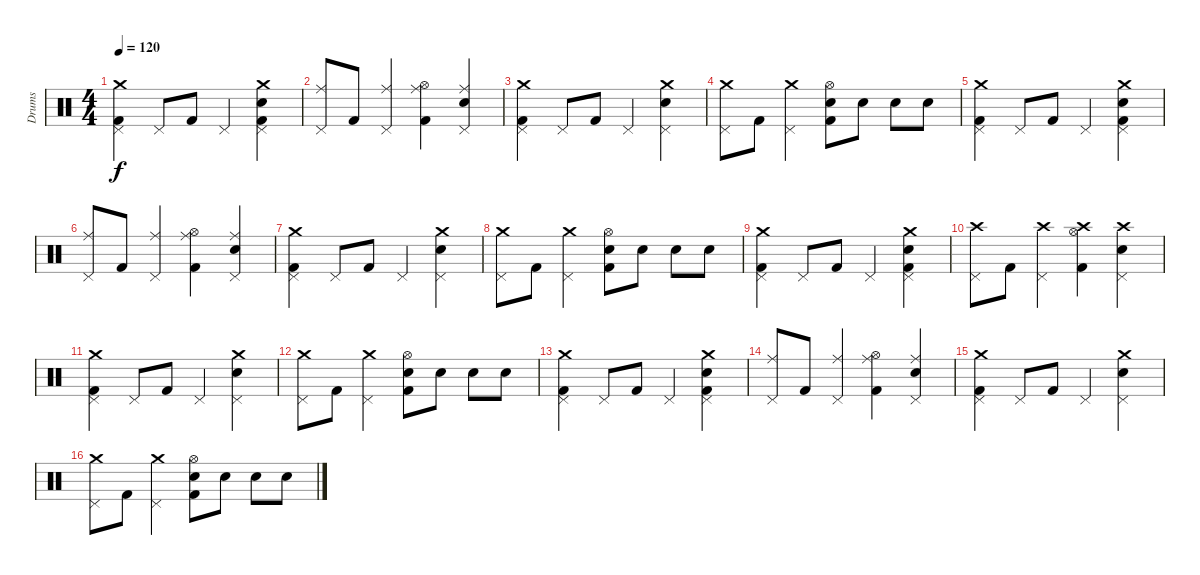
\track ("Drums" "Drums") {instrument percussion}
\staff {score}
\articulation defaults
\ts (4 4)
\tempo 120
\clef neutral
\ks c
("Crash medium (hit)" "Pedal Hi-Hat (hit)" "Kick (hit) 2").4{dy f} "Pedal Hi-Hat (hit)".8 "Kick (hit) 2".8 "Pedal Hi-Hat (hit)".4 ("Crash medium (hit)" "Pedal Hi-Hat (hit)" "Snare (hit) 2" "Kick (hit) 2").4 |
("Ride (middle)" "Pedal Hi-Hat (hit)").8 "Kick (hit) 2".8 ("Ride (middle)" "Pedal Hi-Hat (hit)").4 ("Ride (middle)" "Hi-Hat (open)" "Kick (hit) 2").4 ("Ride (middle)" "Pedal Hi-Hat (hit)" "Snare (hit) 2").4 |
("Crash medium (hit)" "Pedal Hi-Hat (hit)" "Kick (hit) 2").4 "Pedal Hi-Hat (hit)".8 "Kick (hit) 2".8 "Pedal Hi-Hat (hit)".4 ("Crash medium (hit)" "Pedal Hi-Hat (hit)" "Snare (hit) 2").4 |
("Crash medium (hit)" "Pedal Hi-Hat (hit)").8 "Kick (hit) 2".8 ("Crash medium (hit)" "Pedal Hi-Hat (hit)").4 ("Hi-Hat (open)" "Snare (hit) 2" "Kick (hit) 2").8 "Snare (hit) 2".8 "Snare (hit) 2".8 "Snare (hit) 2".8 |
("Crash medium (hit)" "Pedal Hi-Hat (hit)" "Kick (hit) 2").4 "Pedal Hi-Hat (hit)".8 "Kick (hit) 2".8 "Pedal Hi-Hat (hit)".4 ("Crash medium (hit)" "Pedal Hi-Hat (hit)" "Snare (hit) 2" "Kick (hit) 2").4 |
("Ride (middle)" "Pedal Hi-Hat (hit)").8 "Kick (hit) 2".8 ("Ride (middle)" "Pedal Hi-Hat (hit)").4 ("Ride (middle)" "Hi-Hat (open)" "Kick (hit) 2").4 ("Ride (middle)" "Pedal Hi-Hat (hit)" "Snare (hit) 2").4 |
("Crash medium (hit)" "Pedal Hi-Hat (hit)" "Kick (hit) 2").4 "Pedal Hi-Hat (hit)".8 "Kick (hit) 2".8 "Pedal Hi-Hat (hit)".4 ("Crash medium (hit)" "Pedal Hi-Hat (hit)" "Snare (hit) 2").4 |
("Crash medium (hit)" "Pedal Hi-Hat (hit)").8 "Kick (hit) 2".8 ("Crash medium (hit)" "Pedal Hi-Hat (hit)").4 ("Hi-Hat (open)" "Snare (hit) 2" "Kick (hit) 2").8 "Snare (hit) 2".8 "Snare (hit) 2".8 "Snare (hit) 2".8 |
("Crash medium (hit)" "Pedal Hi-Hat (hit)" "Kick (hit) 2").4 "Pedal Hi-Hat (hit)".8 "Kick (hit) 2".8 "Pedal Hi-Hat (hit)".4 ("Crash medium (hit)" "Pedal Hi-Hat (hit)" "Snare (hit) 2" "Kick (hit) 2").4 |
("Crash high (hit)" "Pedal Hi-Hat (hit)").8 "Kick (hit) 2".8 ("Crash high (hit)" "Pedal Hi-Hat (hit)").4 ("Crash high (hit)" "Hi-Hat (open)" "Kick (hit) 2").4 ("Crash high (hit)" "Pedal Hi-Hat (hit)" "Snare (hit) 2").4 |
("Crash medium (hit)" "Pedal Hi-Hat (hit)" "Kick (hit) 2").4 "Pedal Hi-Hat (hit)".8 "Kick (hit) 2".8 "Pedal Hi-Hat (hit)".4 ("Crash medium (hit)" "Pedal Hi-Hat (hit)" "Snare (hit) 2").4 |
("Crash medium (hit)" "Pedal Hi-Hat (hit)").8 "Kick (hit) 2".8 ("Crash medium (hit)" "Pedal Hi-Hat (hit)").4 ("Hi-Hat (open)" "Snare (hit) 2" "Kick (hit) 2").8 "Snare (hit) 2".8 "Snare (hit) 2".8 "Snare (hit) 2".8 |
("Crash medium (hit)" "Pedal Hi-Hat (hit)" "Kick (hit) 2").4 "Pedal Hi-Hat (hit)".8 "Kick (hit) 2".8 "Pedal Hi-Hat (hit)".4 ("Crash medium (hit)" "Pedal Hi-Hat (hit)" "Snare (hit) 2" "Kick (hit) 2").4 |
("Ride (middle)" "Pedal Hi-Hat (hit)").8 "Kick (hit) 2".8 ("Ride (middle)" "Pedal Hi-Hat (hit)").4 ("Ride (middle)" "Hi-Hat (open)" "Kick (hit) 2").4 ("Ride (middle)" "Pedal Hi-Hat (hit)" "Snare (hit) 2").4 |
("Crash medium (hit)" "Pedal Hi-Hat (hit)" "Kick (hit) 2").4 "Pedal Hi-Hat (hit)".8 "Kick (hit) 2".8 "Pedal Hi-Hat (hit)".4 ("Crash medium (hit)" "Pedal Hi-Hat (hit)" "Snare (hit) 2").4 |
("Crash medium (hit)" "Pedal Hi-Hat (hit)").8 "Kick (hit) 2".8 ("Crash medium (hit)" "Pedal Hi-Hat (hit)").4 ("Hi-Hat (open)" "Snare (hit) 2" "Kick (hit) 2").8 "Snare (hit) 2".8 "Snare (hit) 2".8 "Snare (hit) 2".8
